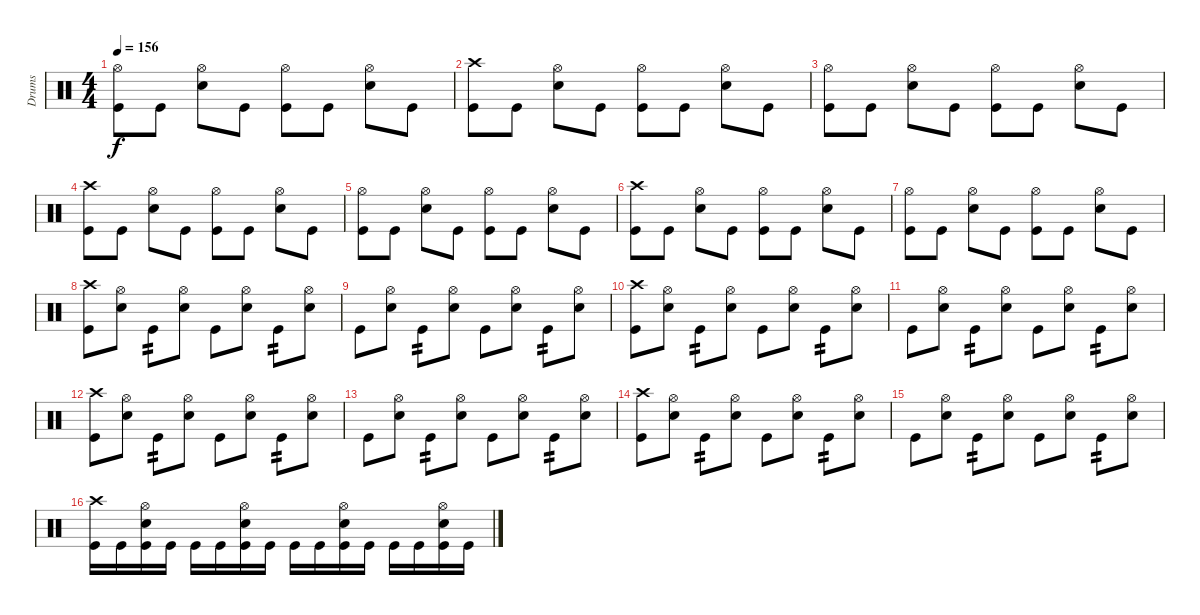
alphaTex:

\track ("Drums" "Drums") {instrument percussion}
\staff {score}
\articulation defaults
\ts (4 4)
\tempo 156
\clef neutral
\ks c
("Hi-Hat (open)" "Kick (hit)").8{dy f} "Kick (hit)".8 ("Hi-Hat (open)" "Electric Snare (hit)").8 "Kick (hit)".8 ("Hi-Hat (open)" "Kick (hit)").8 "Kick (hit)".8 ("Hi-Hat (open)" "Electric Snare (hit)").8 "Kick (hit)".8 |
("Crash high (hit)" "Kick (hit)").8 "Kick (hit)".8 ("Hi-Hat (open)" "Electric Snare (hit)").8 "Kick (hit)".8 ("Hi-Hat (open)" "Kick (hit)").8 "Kick (hit)".8 ("Hi-Hat (open)" "Electric Snare (hit)").8 "Kick (hit)".8 |
("Hi-Hat (open)" "Kick (hit)").8 "Kick (hit)".8 ("Hi-Hat (open)" "Electric Snare (hit)").8 "Kick (hit)".8 ("Hi-Hat (open)" "Kick (hit)").8 "Kick (hit)".8 ("Hi-Hat (open)" "Electric Snare (hit)").8 "Kick (hit)".8 |
("Crash high (hit)" "Kick (hit)").8 "Kick (hit)".8 ("Hi-Hat (open)" "Electric Snare (hit)").8 "Kick (hit)".8 ("Hi-Hat (open)" "Kick (hit)").8 "Kick (hit)".8 ("Hi-Hat (open)" "Electric Snare (hit)").8 "Kick (hit)".8 |
("Hi-Hat (open)" "Kick (hit)").8 "Kick (hit)".8 ("Hi-Hat (open)" "Electric Snare (hit)").8 "Kick (hit)".8 ("Hi-Hat (open)" "Kick (hit)").8 "Kick (hit)".8 ("Hi-Hat (open)" "Electric Snare (hit)").8 "Kick (hit)".8 |
("Crash high (hit)" "Kick (hit)").8 "Kick (hit)".8 ("Hi-Hat (open)" "Electric Snare (hit)").8 "Kick (hit)".8 ("Hi-Hat (open)" "Kick (hit)").8 "Kick (hit)".8 ("Hi-Hat (open)" "Electric Snare (hit)").8 "Kick (hit)".8 |
("Hi-Hat (open)" "Kick (hit)").8 "Kick (hit)".8 ("Hi-Hat (open)" "Electric Snare (hit)").8 "Kick (hit)".8 ("Hi-Hat (open)" "Kick (hit)").8 "Kick (hit)".8 ("Hi-Hat (open)" "Electric Snare (hit)").8 "Kick (hit)".8 |
("Crash high (hit)" "Kick (hit)").8 ("Hi-Hat (open)" "Electric Snare (hit)").8 "Kick (hit)".8{tp 2} ("Hi-Hat (open)" "Electric Snare (hit)").8 "Kick (hit)".8 ("Hi-Hat (open)" "Electric Snare (hit)").8 "Kick (hit)".8{tp 2} ("Hi-Hat (open)" "Electric Snare (hit)").8 |
"Kick (hit)".8 ("Hi-Hat (open)" "Electric Snare (hit)").8 "Kick (hit)".8{tp 2} ("Hi-Hat (open)" "Electric Snare (hit)").8 "Kick (hit)".8 ("Hi-Hat (open)" "Electric Snare (hit)").8 "Kick (hit)".8{tp 2} ("Hi-Hat (open)" "Electric Snare (hit)").8 |
("Crash high (hit)" "Kick (hit)").8 ("Hi-Hat (open)" "Electric Snare (hit)").8 "Kick (hit)".8{tp 2} ("Hi-Hat (open)" "Electric Snare (hit)").8 "Kick (hit)".8 ("Hi-Hat (open)" "Electric Snare (hit)").8 "Kick (hit)".8{tp 2} ("Hi-Hat (open)" "Electric Snare (hit)").8 |
"Kick (hit)".8 ("Hi-Hat (open)" "Electric Snare (hit)").8 "Kick (hit)".8{tp 2} ("Hi-Hat (open)" "Electric Snare (hit)").8 "Kick (hit)".8 ("Hi-Hat (open)" "Electric Snare (hit)").8 "Kick (hit)".8{tp 2} ("Hi-Hat (open)" "Electric Snare (hit)").8 |
("Crash high (hit)" "Kick (hit)").8 ("Hi-Hat (open)" "Electric Snare (hit)").8 "Kick (hit)".8{tp 2} ("Hi-Hat (open)" "Electric Snare (hit)").8 "Kick (hit)".8 ("Hi-Hat (open)" "Electric Snare (hit)").8 "Kick (hit)".8{tp 2} ("Hi-Hat (open)" "Electric Snare (hit)").8 |
"Kick (hit)".8 ("Hi-Hat (open)" "Electric Snare (hit)").8 "Kick (hit)".8{tp 2} ("Hi-Hat (open)" "Electric Snare (hit)").8 "Kick (hit)".8 ("Hi-Hat (open)" "Electric Snare (hit)").8 "Kick (hit)".8{tp 2} ("Hi-Hat (open)" "Electric Snare (hit)").8 |
("Crash high (hit)" "Kick (hit)").8 ("Hi-Hat (open)" "Electric Snare (hit)").8 "Kick (hit)".8{tp 2} ("Hi-Hat (open)" "Electric Snare (hit)").8 "Kick (hit)".8 ("Hi-Hat (open)" "Electric Snare (hit)").8 "Kick (hit)".8{tp 2} ("Hi-Hat (open)" "Electric Snare (hit)").8 |
"Kick (hit)".8 ("Hi-Hat (open)" "Electric Snare (hit)").8 "Kick (hit)".8{tp 2} ("Hi-Hat (open)" "Electric Snare (hit)").8 "Kick (hit)".8 ("Hi-Hat (open)" "Electric Snare (hit)").8 "Kick (hit)".8{tp 2} ("Hi-Hat (open)" "Electric Snare (hit)").8 |
("Crash high (hit)" "Kick (hit)").16 "Kick (hit)".16 ("Hi-Hat (open)" "Electric Snare (hit)" "Kick (hit)").16 "Kick (hit)".16 "Kick (hit)".16 "Kick (hit)".16 ("Hi-Hat (open)" "Electric Snare (hit)" "Kick (hit)").16 "Kick (hit)".16 "Kick (hit)".16 "Kick (hit)".16 ("Hi-Hat (open)" "Electric Snare (hit)" "Kick (hit)").16 "Kick (hit)".16 "Kick (hit)".16 "Kick (hit)".16 ("Hi-Hat (open)" "Electric Snare (hit)" "Kick (hit)").16 "Kick (hit)".16
